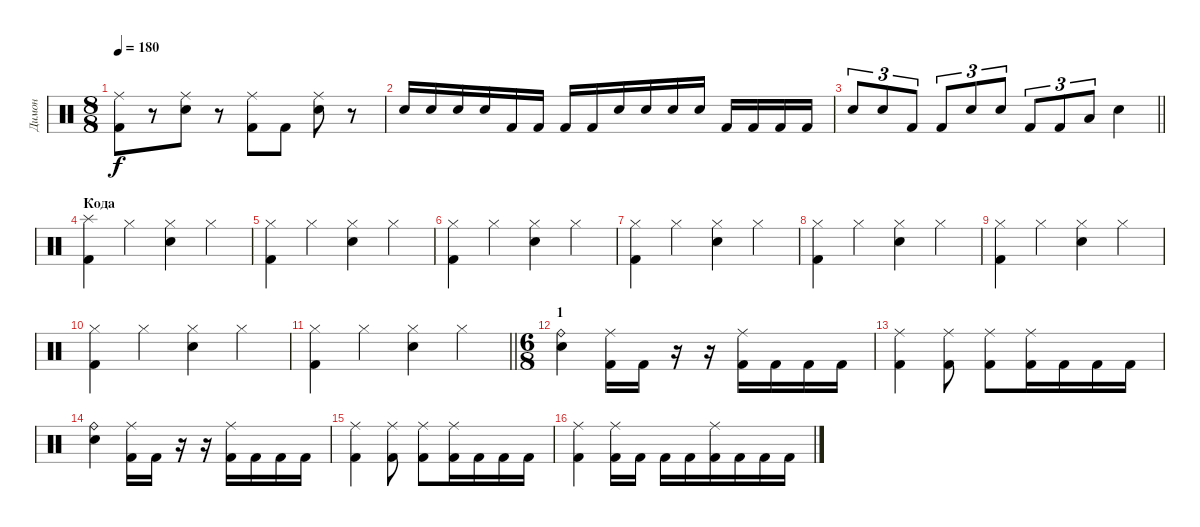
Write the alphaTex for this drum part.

\track ("Димон" "Димон") {instrument percussion}
\staff {score}
\articulation defaults
\ts (8 8)
\tempo 180
\clef neutral
\ks c
("Kick (hit) 2" "Ride (middle)").8{dy f} r.8 ("Electric Snare (hit)" "Ride (middle)").8 r.8 ("Kick (hit) 2" "Ride (middle)").8 "Kick (hit) 2".8 ("Electric Snare (hit)" "Ride (middle)").8 r.8 |
"Electric Snare (hit)".16 "Electric Snare (hit)".16 "Electric Snare (hit)".16 "Electric Snare (hit)".16 "Kick (hit) 2".16 "Kick (hit) 2".16 "Kick (hit) 2".16 "Kick (hit) 2".16 "Electric Snare (hit)".16 "Electric Snare (hit)".16 "Electric Snare (hit)".16 "Electric Snare (hit)".16 "Kick (hit) 2".16 "Kick (hit) 2".16 "Kick (hit) 2".16 "Kick (hit) 2".16 |
\barLineRight lightlight "Electric Snare (hit)".8{tu (3 2)} "Electric Snare (hit)".8{tu (3 2)} "Kick (hit) 2".8{tu (3 2)} "Kick (hit) 2".8{tu (3 2)} "Electric Snare (hit)".8{tu (3 2)} "Electric Snare (hit)".8{tu (3 2)} "Kick (hit) 2".8{tu (3 2)} "Kick (hit) 2".8{tu (3 2)} "Low Tom (hit)".8{tu (3 2)} "Electric Snare (hit)".4
|
\section ("" "Кода")
("Kick (hit) 2" "Splash (hit)").4 "Hi-Hat (closed)".4 ("Electric Snare (hit)" "Hi-Hat (closed)").4 "Hi-Hat (closed)".4 |
("Kick (hit) 2" "Hi-Hat (closed)").4 "Hi-Hat (closed)".4 ("Electric Snare (hit)" "Hi-Hat (closed)").4 "Hi-Hat (closed)".4 |
("Kick (hit) 2" "Hi-Hat (closed)").4 "Hi-Hat (closed)".4 ("Electric Snare (hit)" "Hi-Hat (closed)").4 "Hi-Hat (closed)".4 |
("Kick (hit) 2" "Hi-Hat (closed)").4 "Hi-Hat (closed)".4 ("Electric Snare (hit)" "Hi-Hat (closed)").4 "Hi-Hat (closed)".4 |
("Kick (hit) 2" "Hi-Hat (closed)").4 "Hi-Hat (closed)".4 ("Electric Snare (hit)" "Hi-Hat (closed)").4 "Hi-Hat (closed)".4 |
("Kick (hit) 2" "Hi-Hat (closed)").4 "Hi-Hat (closed)".4 ("Electric Snare (hit)" "Hi-Hat (closed)").4 "Hi-Hat (closed)".4 |
("Kick (hit) 2" "Hi-Hat (closed)").4 "Hi-Hat (closed)".4 ("Electric Snare (hit)" "Hi-Hat (closed)").4 "Hi-Hat (closed)".4 |
\barLineRight lightlight
("Kick (hit) 2" "Hi-Hat (closed)").4 "Hi-Hat (closed)".4 ("Electric Snare (hit)" "Hi-Hat (closed)").4 "Hi-Hat (closed)".4 |
\ts (6 8)
\section ("" "1")
("Ride (bell)" "Snare (hit) 2").4 ("Kick (hit) 2" "Ride (middle)").16 "Kick (hit) 2".16 r.16 r.16 ("Ride (middle)" "Kick (hit) 2").16 "Kick (hit) 2".16 "Kick (hit) 2".16 "Kick (hit) 2".16 |
("Kick (hit) 2" "Ride (middle)").4 ("Kick (hit) 2" "Ride (middle)").8 ("Kick (hit) 2" "Ride (middle)").8 ("Ride (middle)" "Kick (hit) 2").16 "Kick (hit) 2".16 "Kick (hit) 2".16 "Kick (hit) 2".16 |
("Ride (bell)" "Snare (hit) 2").4 ("Kick (hit) 2" "Ride (middle)").16 "Kick (hit) 2".16 r.16 r.16 ("Ride (middle)" "Kick (hit) 2").16 "Kick (hit) 2".16 "Kick (hit) 2".16 "Kick (hit) 2".16 |
("Kick (hit) 2" "Ride (middle)").4 ("Kick (hit) 2" "Ride (middle)").8 ("Kick (hit) 2" "Ride (middle)").8 ("Ride (middle)" "Kick (hit) 2").16 "Kick (hit) 2".16 "Kick (hit) 2".16 "Kick (hit) 2".16 |
("Kick (hit) 2" "Ride (middle)").4 ("Kick (hit) 2" "Ride (middle)").16 "Kick (hit) 2".16 "Kick (hit) 2".16 "Kick (hit) 2".16 ("Kick (hit) 2" "Ride (middle)").16 "Kick (hit) 2".16 "Kick (hit) 2".16 "Kick (hit) 2".16
